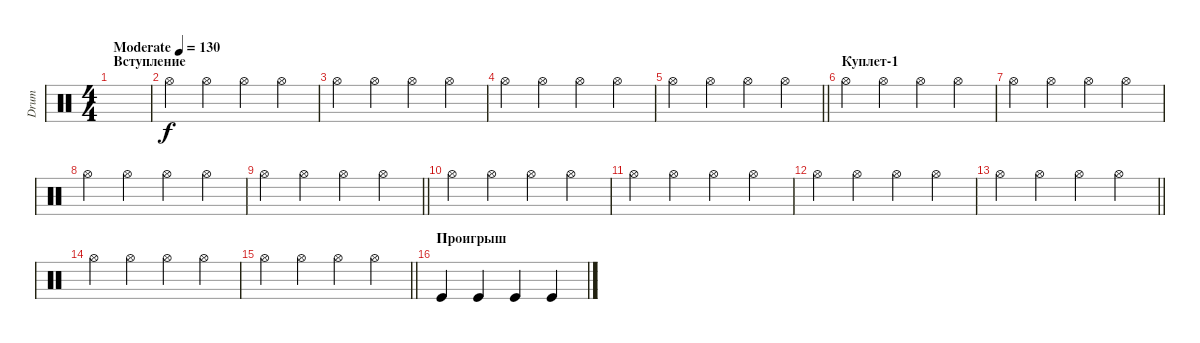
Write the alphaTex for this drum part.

\track ("Drum" "Drum") {instrument percussion}
\staff {score}
\articulation defaults
\ts (4 4)
\section ("" "Вступление")
\tempo (130 "Moderate")
\clef neutral
\ks c
|
"Hi-Hat (open)".4 "Hi-Hat (open)".4 "Hi-Hat (open)".4 "Hi-Hat (open)".4 |
"Hi-Hat (open)".4 "Hi-Hat (open)".4 "Hi-Hat (open)".4 "Hi-Hat (open)".4 |
"Hi-Hat (open)".4 "Hi-Hat (open)".4 "Hi-Hat (open)".4 "Hi-Hat (open)".4 |
\barLineRight lightlight "Hi-Hat (open)".4 "Hi-Hat (open)".4 "Hi-Hat (open)".4 "Hi-Hat (open)".4
|
\section ("" "Куплет-1")
"Hi-Hat (open)".4 "Hi-Hat (open)".4 "Hi-Hat (open)".4 "Hi-Hat (open)".4 |
"Hi-Hat (open)".4 "Hi-Hat (open)".4 "Hi-Hat (open)".4 "Hi-Hat (open)".4 |
"Hi-Hat (open)".4 "Hi-Hat (open)".4 "Hi-Hat (open)".4 "Hi-Hat (open)".4 |
\barLineRight lightlight "Hi-Hat (open)".4 "Hi-Hat (open)".4 "Hi-Hat (open)".4 "Hi-Hat (open)".4
|
"Hi-Hat (open)".4 "Hi-Hat (open)".4 "Hi-Hat (open)".4 "Hi-Hat (open)".4 |
"Hi-Hat (open)".4 "Hi-Hat (open)".4 "Hi-Hat (open)".4 "Hi-Hat (open)".4 |
"Hi-Hat (open)".4 "Hi-Hat (open)".4 "Hi-Hat (open)".4 "Hi-Hat (open)".4 |
\barLineRight lightlight "Hi-Hat (open)".4 "Hi-Hat (open)".4 "Hi-Hat (open)".4 "Hi-Hat (open)".4
|
"Hi-Hat (open)".4 "Hi-Hat (open)".4 "Hi-Hat (open)".4 "Hi-Hat (open)".4 |
\barLineRight lightlight "Hi-Hat (open)".4 "Hi-Hat (open)".4 "Hi-Hat (open)".4 "Hi-Hat (open)".4
|
\section ("" "Проигрыш")
"Kick (hit)".4{dy f} "Kick (hit)".4 "Kick (hit)".4 "Kick (hit)".4
